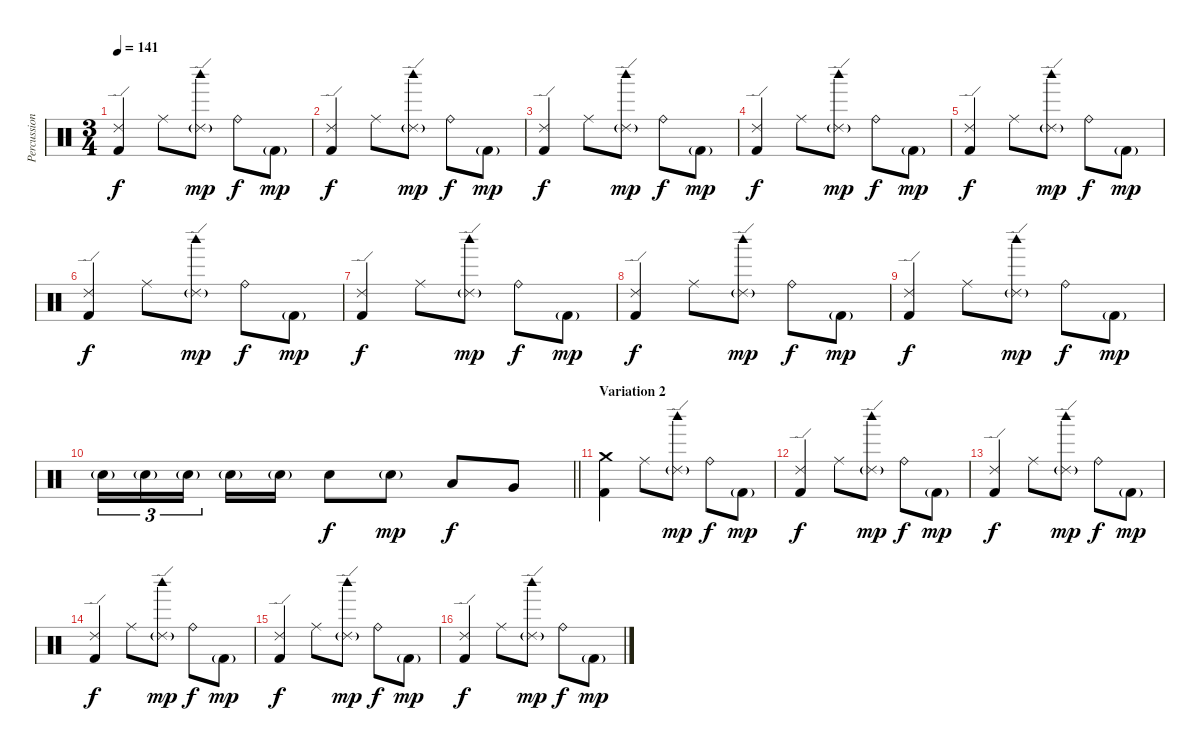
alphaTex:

\track ("Percussion" "Percussion") {instrument percussion}
\staff {score}
\articulation defaults
\ts (3 4)
\tempo 141
\clef neutral
\ks c
("Ride (edge) 2" "Kick (hit) 2").4{dy f} "Ride (middle)".8 ("Ride (edge) 2"{g} "Woodblock high (hit)").8{dy mp} "Ride (bell)".8{dy f} "Kick (hit) 2"{g}.8{dy mp} |
("Ride (edge) 2" "Kick (hit) 2").4{dy f} "Ride (middle)".8 ("Ride (edge) 2"{g} "Woodblock high (hit)").8{dy mp} "Ride (bell)".8{dy f} "Kick (hit) 2"{g}.8{dy mp} |
("Ride (edge) 2" "Kick (hit) 2").4{dy f} "Ride (middle)".8 ("Ride (edge) 2"{g} "Woodblock high (hit)").8{dy mp} "Ride (bell)".8{dy f} "Kick (hit) 2"{g}.8{dy mp} |
("Ride (edge) 2" "Kick (hit) 2").4{dy f} "Ride (middle)".8 ("Ride (edge) 2"{g} "Woodblock high (hit)").8{dy mp} "Ride (bell)".8{dy f} "Kick (hit) 2"{g}.8{dy mp} |
("Ride (edge) 2" "Kick (hit) 2").4{dy f} "Ride (middle)".8 ("Ride (edge) 2"{g} "Woodblock high (hit)").8{dy mp} "Ride (bell)".8{dy f} "Kick (hit) 2"{g}.8{dy mp} |
("Ride (edge) 2" "Kick (hit) 2").4{dy f} "Ride (middle)".8 ("Ride (edge) 2"{g} "Woodblock high (hit)").8{dy mp} "Ride (bell)".8{dy f} "Kick (hit) 2"{g}.8{dy mp} |
("Ride (edge) 2" "Kick (hit) 2").4{dy f} "Ride (middle)".8 ("Ride (edge) 2"{g} "Woodblock high (hit)").8{dy mp} "Ride (bell)".8{dy f} "Kick (hit) 2"{g}.8{dy mp} |
("Ride (edge) 2" "Kick (hit) 2").4{dy f} "Ride (middle)".8 ("Ride (edge) 2"{g} "Woodblock high (hit)").8{dy mp} "Ride (bell)".8{dy f} "Kick (hit) 2"{g}.8{dy mp} |
("Ride (edge) 2" "Kick (hit) 2").4{dy f} "Ride (middle)".8 ("Ride (edge) 2"{g} "Woodblock high (hit)").8{dy mp} "Ride (bell)".8{dy f} "Kick (hit) 2"{g}.8{dy mp} |
\barLineRight lightlight "Electric Snare (hit)"{g}.16{tu (3 2)} "Electric Snare (hit)"{g}.16{tu (3 2)} "Electric Snare (hit)"{g}.16{tu (3 2) beam splitsecondary} "Electric Snare (hit)"{g}.16 "Electric Snare (hit)"{g}.16 "Electric Snare (hit)".8{dy f} "Electric Snare (hit)"{g}.8{dy mp} "Low Tom (hit)".8{dy f} "Very Low Tom (hit)".8
|
\section ("" "Variation 2")
("Crash medium (hit)" "Kick (hit) 2").4 "Ride (middle)".8 ("Ride (edge) 2"{g} "Woodblock high (hit)").8{dy mp} "Ride (bell)".8{dy f} "Kick (hit) 2"{g}.8{dy mp} |
("Ride (edge) 2" "Kick (hit) 2").4{dy f} "Ride (middle)".8 ("Ride (edge) 2"{g} "Woodblock high (hit)").8{dy mp} "Ride (bell)".8{dy f} "Kick (hit) 2"{g}.8{dy mp} |
("Ride (edge) 2" "Kick (hit) 2").4{dy f} "Ride (middle)".8 ("Ride (edge) 2"{g} "Woodblock high (hit)").8{dy mp} "Ride (bell)".8{dy f} "Kick (hit) 2"{g}.8{dy mp} |
("Ride (edge) 2" "Kick (hit) 2").4{dy f} "Ride (middle)".8 ("Ride (edge) 2"{g} "Woodblock high (hit)").8{dy mp} "Ride (bell)".8{dy f} "Kick (hit) 2"{g}.8{dy mp} |
("Ride (edge) 2" "Kick (hit) 2").4{dy f} "Ride (middle)".8 ("Ride (edge) 2"{g} "Woodblock high (hit)").8{dy mp} "Ride (bell)".8{dy f} "Kick (hit) 2"{g}.8{dy mp} |
("Ride (edge) 2" "Kick (hit) 2").4{dy f} "Ride (middle)".8 ("Ride (edge) 2"{g} "Woodblock high (hit)").8{dy mp} "Ride (bell)".8{dy f} "Kick (hit) 2"{g}.8{dy mp}
